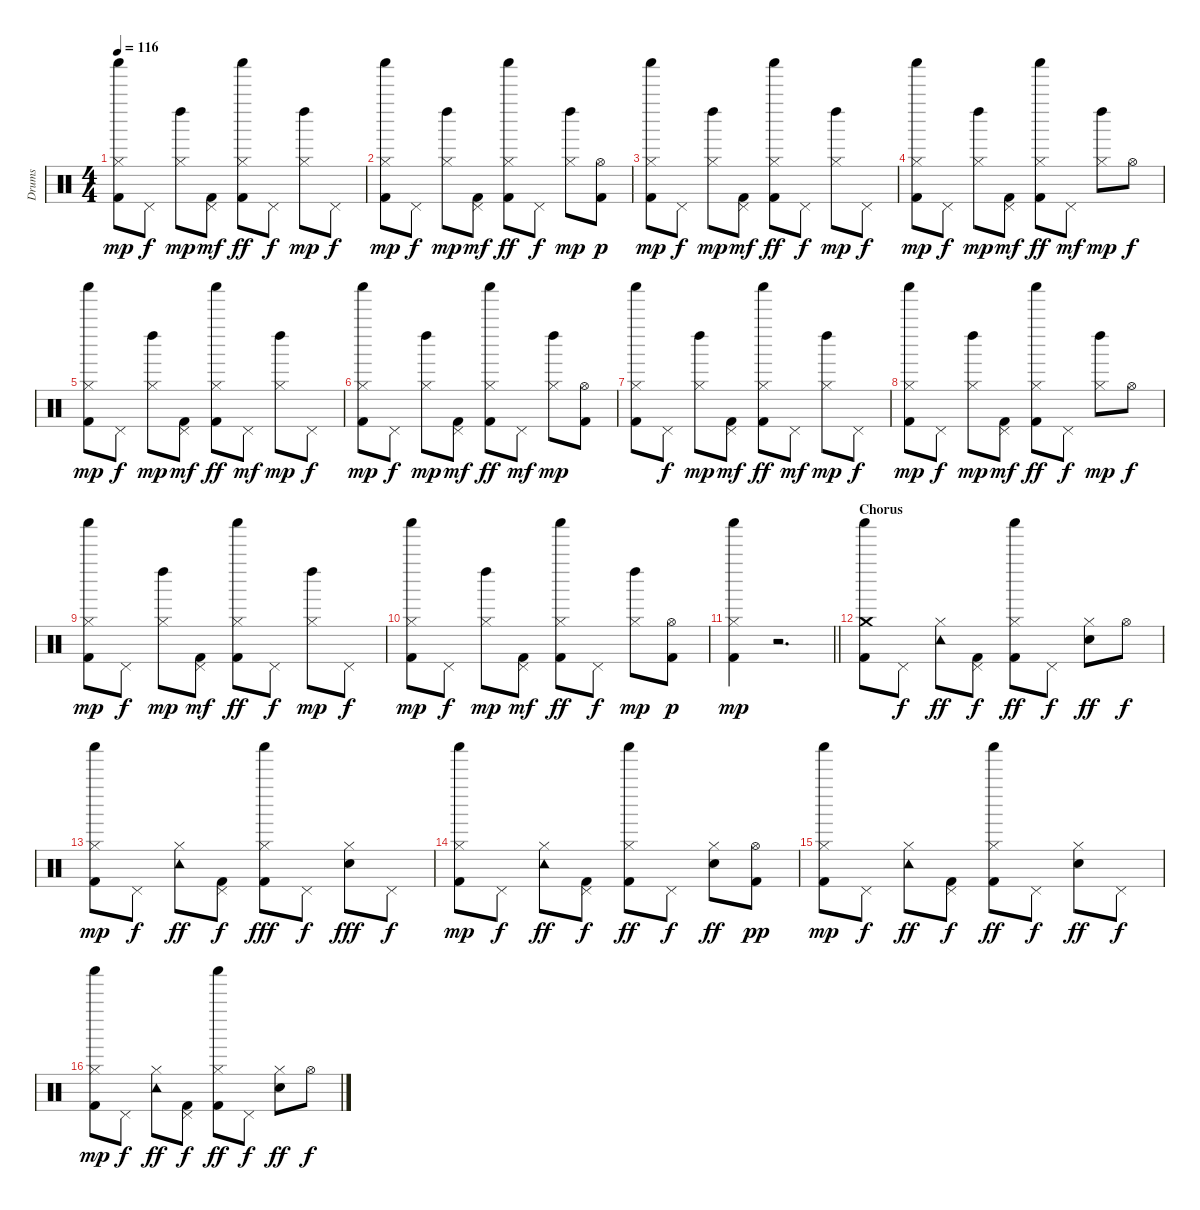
\track ("Drums" "Drums") {instrument percussion}
\staff {score}
\articulation defaults
\ts (4 4)
\tempo 116
\clef neutral
\ks c
("Kick (hit) 2" "Hi-Hat (closed)" "Shaker (hit)").8{dy mp} "Pedal Hi-Hat (hit)".8{dy f} ("Hi-Hat (closed)" "Left Maraca (hit)").8{dy mp} ("Pedal Hi-Hat (hit)" "Kick (hit) 2").8{dy mf} ("Kick (hit) 2" "Shaker (hit)" "Hi-Hat (closed)").8{dy ff} "Pedal Hi-Hat (hit)".8{dy f} ("Hi-Hat (closed)" "Left Maraca (hit)").8{dy mp} "Pedal Hi-Hat (hit)".8{dy f} |
("Kick (hit) 2" "Hi-Hat (closed)" "Shaker (hit)").8{dy mp} "Pedal Hi-Hat (hit)".8{dy f} ("Hi-Hat (closed)" "Left Maraca (hit)").8{dy mp} ("Pedal Hi-Hat (hit)" "Kick (hit) 2").8{dy mf} ("Kick (hit) 2" "Shaker (hit)" "Hi-Hat (closed)").8{dy ff} "Pedal Hi-Hat (hit)".8{dy f} ("Hi-Hat (closed)" "Left Maraca (hit)").8{dy mp} ("Kick (hit) 2" "Hi-Hat (open)").8{dy p} |
("Kick (hit) 2" "Hi-Hat (closed)" "Shaker (hit)").8{dy mp} "Pedal Hi-Hat (hit)".8{dy f} ("Hi-Hat (closed)" "Left Maraca (hit)").8{dy mp} ("Pedal Hi-Hat (hit)" "Kick (hit) 2").8{dy mf} ("Kick (hit) 2" "Shaker (hit)" "Hi-Hat (closed)").8{dy ff} "Pedal Hi-Hat (hit)".8{dy f} ("Hi-Hat (closed)" "Left Maraca (hit)").8{dy mp} "Pedal Hi-Hat (hit)".8{dy f} |
("Kick (hit) 2" "Hi-Hat (closed)" "Shaker (hit)").8{dy mp} "Pedal Hi-Hat (hit)".8{dy f} ("Hi-Hat (closed)" "Left Maraca (hit)").8{dy mp} ("Pedal Hi-Hat (hit)" "Kick (hit) 2").8{dy mf} ("Kick (hit) 2" "Shaker (hit)" "Hi-Hat (closed)").8{dy ff} "Pedal Hi-Hat (hit)".8{dy mf} ("Hi-Hat (closed)" "Left Maraca (hit)").8{dy mp} "Hi-Hat (open)".8{dy f} |
("Kick (hit) 2" "Hi-Hat (closed)" "Shaker (hit)").8{dy mp} "Pedal Hi-Hat (hit)".8{dy f} ("Hi-Hat (closed)" "Left Maraca (hit)").8{dy mp} ("Pedal Hi-Hat (hit)" "Kick (hit) 2").8{dy mf} ("Kick (hit) 2" "Shaker (hit)" "Hi-Hat (closed)").8{dy ff} "Pedal Hi-Hat (hit)".8{dy mf} ("Hi-Hat (closed)" "Left Maraca (hit)").8{dy mp} "Pedal Hi-Hat (hit)".8{dy f} |
("Kick (hit) 2" "Hi-Hat (closed)" "Shaker (hit)").8{dy mp} "Pedal Hi-Hat (hit)".8{dy f} ("Hi-Hat (closed)" "Left Maraca (hit)").8{dy mp} ("Pedal Hi-Hat (hit)" "Kick (hit) 2").8{dy mf} ("Kick (hit) 2" "Shaker (hit)" "Hi-Hat (closed)").8{dy ff} "Pedal Hi-Hat (hit)".8{dy mf} ("Hi-Hat (closed)" "Left Maraca (hit)").8{dy mp} ("Kick (hit) 2" "Hi-Hat (open)").8 |
("Kick (hit) 2" "Hi-Hat (closed)" "Shaker (hit)").8 "Pedal Hi-Hat (hit)".8{dy f} ("Hi-Hat (closed)" "Left Maraca (hit)").8{dy mp} ("Pedal Hi-Hat (hit)" "Kick (hit) 2").8{dy mf} ("Kick (hit) 2" "Shaker (hit)" "Hi-Hat (closed)").8{dy ff} "Pedal Hi-Hat (hit)".8{dy mf} ("Hi-Hat (closed)" "Left Maraca (hit)").8{dy mp} "Pedal Hi-Hat (hit)".8{dy f} |
("Kick (hit) 2" "Hi-Hat (closed)" "Shaker (hit)").8{dy mp} "Pedal Hi-Hat (hit)".8{dy f} ("Hi-Hat (closed)" "Left Maraca (hit)").8{dy mp} ("Pedal Hi-Hat (hit)" "Kick (hit) 2").8{dy mf} ("Kick (hit) 2" "Shaker (hit)" "Hi-Hat (closed)").8{dy ff} "Pedal Hi-Hat (hit)".8{dy f} ("Hi-Hat (closed)" "Left Maraca (hit)").8{dy mp} "Hi-Hat (open)".8{dy f} |
("Kick (hit) 2" "Hi-Hat (closed)" "Shaker (hit)").8{dy mp} "Pedal Hi-Hat (hit)".8{dy f} ("Hi-Hat (closed)" "Left Maraca (hit)").8{dy mp} ("Pedal Hi-Hat (hit)" "Kick (hit) 2").8{dy mf} ("Kick (hit) 2" "Shaker (hit)" "Hi-Hat (closed)").8{dy ff} "Pedal Hi-Hat (hit)".8{dy f} ("Hi-Hat (closed)" "Left Maraca (hit)").8{dy mp} "Pedal Hi-Hat (hit)".8{dy f} |
("Kick (hit) 2" "Hi-Hat (closed)" "Shaker (hit)").8{dy mp} "Pedal Hi-Hat (hit)".8{dy f} ("Hi-Hat (closed)" "Left Maraca (hit)").8{dy mp} ("Pedal Hi-Hat (hit)" "Kick (hit) 2").8{dy mf} ("Kick (hit) 2" "Shaker (hit)" "Hi-Hat (closed)").8{dy ff} "Pedal Hi-Hat (hit)".8{dy f} ("Hi-Hat (closed)" "Left Maraca (hit)").8{dy mp} ("Kick (hit) 2" "Hi-Hat (open)").8{dy p} |
\barLineRight lightlight
("Kick (hit) 2" "Hi-Hat (closed)" "Shaker (hit)").4{dy mp} r.2{d} |
\section ("" "Chorus")
("Kick (hit) 2" "Crash medium (hit)" "Shaker (hit)").8 "Pedal Hi-Hat (hit)".8{dy f} ("Hi-Hat (closed)" "Tambourine (hit)").8{dy ff} ("Pedal Hi-Hat (hit)" "Kick (hit) 2").8{dy f} ("Kick (hit) 2" "Shaker (hit)" "Hi-Hat (closed)").8{dy ff} "Pedal Hi-Hat (hit)".8{dy f} ("Snare (hit) 2" "Hi-Hat (closed)").8{dy ff} "Hi-Hat (open)".8{dy f} |
("Kick (hit) 2" "Hi-Hat (closed)" "Shaker (hit)").8{dy mp} "Pedal Hi-Hat (hit)".8{dy f} ("Hi-Hat (closed)" "Tambourine (hit)").8{dy ff} ("Pedal Hi-Hat (hit)" "Kick (hit) 2").8{dy f} ("Kick (hit) 2" "Shaker (hit)" "Hi-Hat (closed)").8{dy fff} "Pedal Hi-Hat (hit)".8{dy f} ("Hi-Hat (closed)" "Snare (hit) 2").8{dy fff} "Pedal Hi-Hat (hit)".8{dy f} |
("Kick (hit) 2" "Hi-Hat (closed)" "Shaker (hit)").8{dy mp} "Pedal Hi-Hat (hit)".8{dy f} ("Hi-Hat (closed)" "Tambourine (hit)").8{dy ff} ("Pedal Hi-Hat (hit)" "Kick (hit) 2").8{dy f} ("Kick (hit) 2" "Shaker (hit)" "Hi-Hat (closed)").8{dy ff} "Pedal Hi-Hat (hit)".8{dy f} ("Hi-Hat (closed)" "Snare (hit) 2").8{dy ff} ("Kick (hit) 2" "Hi-Hat (open)").8{dy pp} |
("Kick (hit) 2" "Hi-Hat (closed)" "Shaker (hit)").8{dy mp} "Pedal Hi-Hat (hit)".8{dy f} ("Hi-Hat (closed)" "Tambourine (hit)").8{dy ff} ("Pedal Hi-Hat (hit)" "Kick (hit) 2").8{dy f} ("Kick (hit) 2" "Shaker (hit)" "Hi-Hat (closed)").8{dy ff} "Pedal Hi-Hat (hit)".8{dy f} ("Snare (hit) 2" "Hi-Hat (closed)").8{dy ff} "Pedal Hi-Hat (hit)".8{dy f} |
("Kick (hit) 2" "Hi-Hat (closed)" "Shaker (hit)").8{dy mp} "Pedal Hi-Hat (hit)".8{dy f} ("Hi-Hat (closed)" "Tambourine (hit)").8{dy ff} ("Pedal Hi-Hat (hit)" "Kick (hit) 2").8{dy f} ("Kick (hit) 2" "Shaker (hit)" "Hi-Hat (closed)").8{dy ff} "Pedal Hi-Hat (hit)".8{dy f} ("Snare (hit) 2" "Hi-Hat (closed)").8{dy ff} "Hi-Hat (open)".8{dy f}
